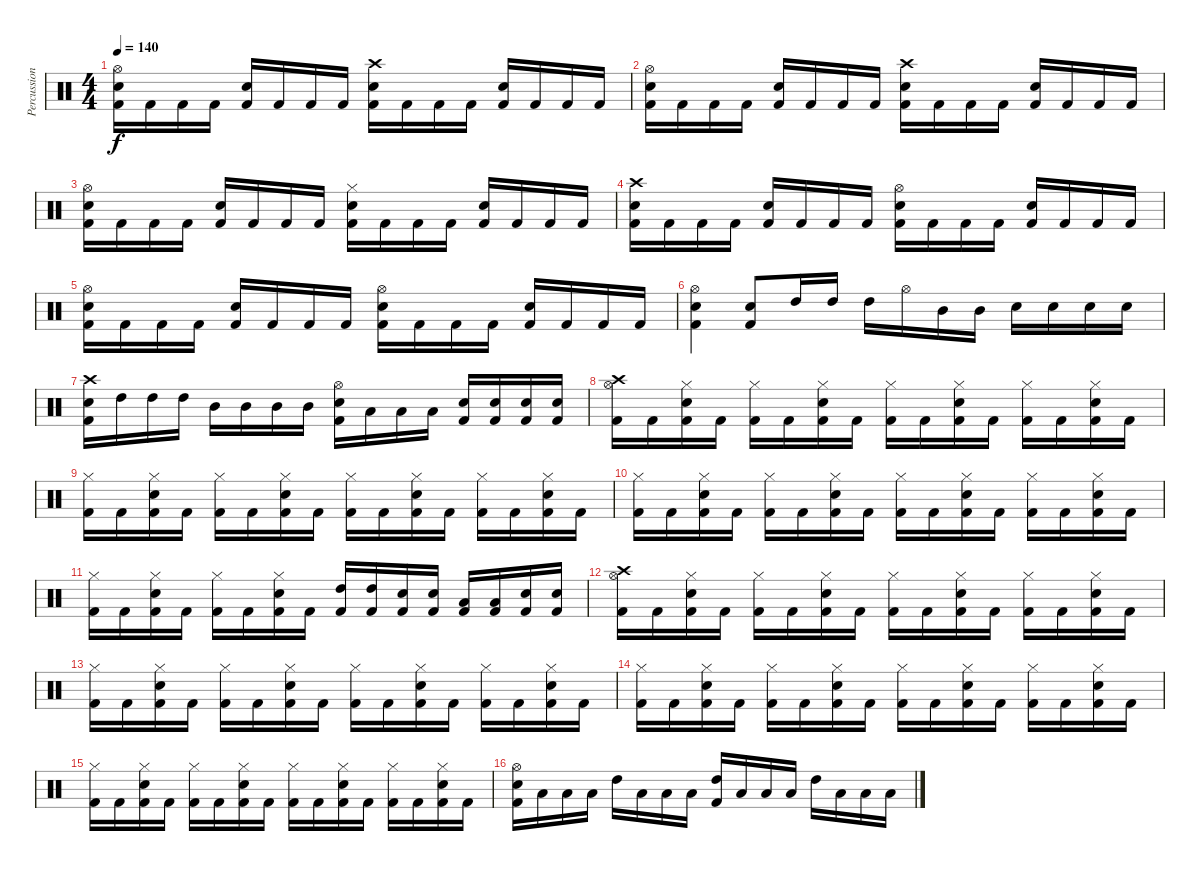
\track ("Percussions" "Percussion") {instrument percussion}
\staff {score}
\articulation defaults
\ts (4 4)
\tempo 140
\clef neutral
\ks c
("Hi-Hat (open)" "Snare (hit) 2" "Kick (hit) 2").16{dy f} "Kick (hit) 2".16 "Kick (hit) 2".16 "Kick (hit) 2".16 ("Snare (hit) 2" "Kick (hit) 2").16 "Kick (hit) 2".16 "Kick (hit) 2".16 "Kick (hit) 2".16 ("Crash high (hit)" "Snare (hit) 2" "Kick (hit) 2").16 "Kick (hit) 2".16 "Kick (hit) 2".16 "Kick (hit) 2".16 ("Snare (hit) 2" "Kick (hit) 2").16 "Kick (hit) 2".16 "Kick (hit) 2".16 "Kick (hit) 2".16 |
("Hi-Hat (open)" "Snare (hit) 2" "Kick (hit) 2").16 "Kick (hit) 2".16 "Kick (hit) 2".16 "Kick (hit) 2".16 ("Snare (hit) 2" "Kick (hit) 2").16 "Kick (hit) 2".16 "Kick (hit) 2".16 "Kick (hit) 2".16 ("Crash high (hit)" "Snare (hit) 2" "Kick (hit) 2").16 "Kick (hit) 2".16 "Kick (hit) 2".16 "Kick (hit) 2".16 ("Snare (hit) 2" "Kick (hit) 2").16 "Kick (hit) 2".16 "Kick (hit) 2".16 "Kick (hit) 2".16 |
("Hi-Hat (open)" "Snare (hit) 2" "Kick (hit) 2").16 "Kick (hit) 2".16 "Kick (hit) 2".16 "Kick (hit) 2".16 ("Snare (hit) 2" "Kick (hit) 2").16 "Kick (hit) 2".16 "Kick (hit) 2".16 "Kick (hit) 2".16 ("Hi-Hat (closed)" "Snare (hit) 2" "Kick (hit) 2").16 "Kick (hit) 2".16 "Kick (hit) 2".16 "Kick (hit) 2".16 ("Snare (hit) 2" "Kick (hit) 2").16 "Kick (hit) 2".16 "Kick (hit) 2".16 "Kick (hit) 2".16 |
("Crash high (hit)" "Snare (hit) 2" "Kick (hit) 2").16 "Kick (hit) 2".16 "Kick (hit) 2".16 "Kick (hit) 2".16 ("Snare (hit) 2" "Kick (hit) 2").16 "Kick (hit) 2".16 "Kick (hit) 2".16 "Kick (hit) 2".16 ("Hi-Hat (open)" "Snare (hit) 2" "Kick (hit) 2").16 "Kick (hit) 2".16 "Kick (hit) 2".16 "Kick (hit) 2".16 ("Snare (hit) 2" "Kick (hit) 2").16 "Kick (hit) 2".16 "Kick (hit) 2".16 "Kick (hit) 2".16 |
("Hi-Hat (open)" "Snare (hit) 2" "Kick (hit) 2").16 "Kick (hit) 2".16 "Kick (hit) 2".16 "Kick (hit) 2".16 ("Snare (hit) 2" "Kick (hit) 2").16 "Kick (hit) 2".16 "Kick (hit) 2".16 "Kick (hit) 2".16 ("Hi-Hat (open)" "Snare (hit) 2" "Kick (hit) 2").16 "Kick (hit) 2".16 "Kick (hit) 2".16 "Kick (hit) 2".16 ("Snare (hit) 2" "Kick (hit) 2").16 "Kick (hit) 2".16 "Kick (hit) 2".16 "Kick (hit) 2".16 |
("Hi-Hat (open)" "Snare (hit) 2" "Kick (hit) 2").4 ("Snare (hit) 2" "Kick (hit) 2").8 "High Tom (hit)".16 "High Tom (hit)".16 "High Tom (hit)".16 "Hi-Hat (open)".16 "Mid Tom (hit)".16 "Mid Tom (hit)".16 "Snare (hit) 2".16 "Snare (hit) 2".16 "Snare (hit) 2".16 "Snare (hit) 2".16 |
("Crash high (hit)" "Snare (hit) 2" "Kick (hit) 2").16 "High Tom (hit)".16 "High Tom (hit)".16 "High Tom (hit)".16 "Mid Tom (hit)".16 "Mid Tom (hit)".16 "Mid Tom (hit)".16 "Mid Tom (hit)".16 ("Hi-Hat (open)" "Snare (hit) 2" "Kick (hit) 2").16 "Low Tom (hit)".16 "Low Tom (hit)".16 "Low Tom (hit)".16 ("Snare (hit) 2" "Kick (hit) 2").16 ("Snare (hit) 2" "Kick (hit) 2").16 ("Snare (hit) 2" "Kick (hit) 2").16 ("Snare (hit) 2" "Kick (hit) 2").16 |
("Hi-Hat (open)" "Crash high (hit)" "Kick (hit) 2").16 "Kick (hit) 2".16 ("Hi-Hat (closed)" "Snare (hit) 2" "Kick (hit) 2").16 "Kick (hit) 2".16 ("Hi-Hat (closed)" "Kick (hit) 2").16 "Kick (hit) 2".16 ("Hi-Hat (closed)" "Snare (hit) 2" "Kick (hit) 2").16 "Kick (hit) 2".16 ("Hi-Hat (closed)" "Kick (hit) 2").16 "Kick (hit) 2".16 ("Hi-Hat (closed)" "Snare (hit) 2" "Kick (hit) 2").16 "Kick (hit) 2".16 ("Hi-Hat (closed)" "Kick (hit) 2").16 "Kick (hit) 2".16 ("Hi-Hat (closed)" "Snare (hit) 2" "Kick (hit) 2").16 "Kick (hit) 2".16 |
("Hi-Hat (closed)" "Kick (hit) 2").16 "Kick (hit) 2".16 ("Hi-Hat (closed)" "Snare (hit) 2" "Kick (hit) 2").16 "Kick (hit) 2".16 ("Hi-Hat (closed)" "Kick (hit) 2").16 "Kick (hit) 2".16 ("Hi-Hat (closed)" "Snare (hit) 2" "Kick (hit) 2").16 "Kick (hit) 2".16 ("Hi-Hat (closed)" "Kick (hit) 2").16 "Kick (hit) 2".16 ("Hi-Hat (closed)" "Snare (hit) 2" "Kick (hit) 2").16 "Kick (hit) 2".16 ("Hi-Hat (closed)" "Kick (hit) 2").16 "Kick (hit) 2".16 ("Hi-Hat (closed)" "Snare (hit) 2" "Kick (hit) 2").16 "Kick (hit) 2".16 |
("Hi-Hat (closed)" "Kick (hit) 2").16 "Kick (hit) 2".16 ("Hi-Hat (closed)" "Snare (hit) 2" "Kick (hit) 2").16 "Kick (hit) 2".16 ("Hi-Hat (closed)" "Kick (hit) 2").16 "Kick (hit) 2".16 ("Hi-Hat (closed)" "Snare (hit) 2" "Kick (hit) 2").16 "Kick (hit) 2".16 ("Hi-Hat (closed)" "Kick (hit) 2").16 "Kick (hit) 2".16 ("Hi-Hat (closed)" "Snare (hit) 2" "Kick (hit) 2").16 "Kick (hit) 2".16 ("Hi-Hat (closed)" "Kick (hit) 2").16 "Kick (hit) 2".16 ("Hi-Hat (closed)" "Snare (hit) 2" "Kick (hit) 2").16 "Kick (hit) 2".16 |
("Hi-Hat (closed)" "Kick (hit) 2").16 "Kick (hit) 2".16 ("Hi-Hat (closed)" "Snare (hit) 2" "Kick (hit) 2").16 "Kick (hit) 2".16 ("Hi-Hat (closed)" "Kick (hit) 2").16 "Kick (hit) 2".16 ("Hi-Hat (closed)" "Snare (hit) 2" "Kick (hit) 2").16 "Kick (hit) 2".16 ("High Tom (hit)" "Kick (hit) 2").16 ("High Tom (hit)" "Kick (hit) 2").16 ("Snare (hit) 2" "Kick (hit) 2").16 ("Snare (hit) 2" "Kick (hit) 2").16 ("Low Tom (hit)" "Kick (hit) 2").16 ("Low Tom (hit)" "Kick (hit) 2").16 ("Snare (hit) 2" "Kick (hit) 2").16 ("Snare (hit) 2" "Kick (hit) 2").16 |
("Hi-Hat (open)" "Crash high (hit)" "Kick (hit) 2").16 "Kick (hit) 2".16 ("Hi-Hat (closed)" "Snare (hit) 2" "Kick (hit) 2").16 "Kick (hit) 2".16 ("Hi-Hat (closed)" "Kick (hit) 2").16 "Kick (hit) 2".16 ("Hi-Hat (closed)" "Snare (hit) 2" "Kick (hit) 2").16 "Kick (hit) 2".16 ("Hi-Hat (closed)" "Kick (hit) 2").16 "Kick (hit) 2".16 ("Hi-Hat (closed)" "Snare (hit) 2" "Kick (hit) 2").16 "Kick (hit) 2".16 ("Hi-Hat (closed)" "Kick (hit) 2").16 "Kick (hit) 2".16 ("Hi-Hat (closed)" "Snare (hit) 2" "Kick (hit) 2").16 "Kick (hit) 2".16 |
("Hi-Hat (closed)" "Kick (hit) 2").16 "Kick (hit) 2".16 ("Hi-Hat (closed)" "Snare (hit) 2" "Kick (hit) 2").16 "Kick (hit) 2".16 ("Hi-Hat (closed)" "Kick (hit) 2").16 "Kick (hit) 2".16 ("Hi-Hat (closed)" "Snare (hit) 2" "Kick (hit) 2").16 "Kick (hit) 2".16 ("Hi-Hat (closed)" "Kick (hit) 2").16 "Kick (hit) 2".16 ("Hi-Hat (closed)" "Snare (hit) 2" "Kick (hit) 2").16 "Kick (hit) 2".16 ("Hi-Hat (closed)" "Kick (hit) 2").16 "Kick (hit) 2".16 ("Hi-Hat (closed)" "Snare (hit) 2" "Kick (hit) 2").16 "Kick (hit) 2".16 |
("Hi-Hat (closed)" "Kick (hit) 2").16 "Kick (hit) 2".16 ("Hi-Hat (closed)" "Snare (hit) 2" "Kick (hit) 2").16 "Kick (hit) 2".16 ("Hi-Hat (closed)" "Kick (hit) 2").16 "Kick (hit) 2".16 ("Hi-Hat (closed)" "Snare (hit) 2" "Kick (hit) 2").16 "Kick (hit) 2".16 ("Hi-Hat (closed)" "Kick (hit) 2").16 "Kick (hit) 2".16 ("Hi-Hat (closed)" "Snare (hit) 2" "Kick (hit) 2").16 "Kick (hit) 2".16 ("Hi-Hat (closed)" "Kick (hit) 2").16 "Kick (hit) 2".16 ("Hi-Hat (closed)" "Snare (hit) 2" "Kick (hit) 2").16 "Kick (hit) 2".16 |
("Hi-Hat (closed)" "Kick (hit) 2").16 "Kick (hit) 2".16 ("Hi-Hat (closed)" "Snare (hit) 2" "Kick (hit) 2").16 "Kick (hit) 2".16 ("Hi-Hat (closed)" "Kick (hit) 2").16 "Kick (hit) 2".16 ("Hi-Hat (closed)" "Snare (hit) 2" "Kick (hit) 2").16 "Kick (hit) 2".16 ("Hi-Hat (closed)" "Kick (hit) 2").16 "Kick (hit) 2".16 ("Hi-Hat (closed)" "Snare (hit) 2" "Kick (hit) 2").16 "Kick (hit) 2".16 ("Hi-Hat (closed)" "Kick (hit) 2").16 "Kick (hit) 2".16 ("Hi-Hat (closed)" "Snare (hit) 2" "Kick (hit) 2").16 "Kick (hit) 2".16 |
("Hi-Hat (open)" "Snare (hit) 2" "Kick (hit) 2").16 "Low Floor Tom (hit)".16 "Low Floor Tom (hit)".16 "Low Floor Tom (hit)".16 "High Tom (hit)".16 "Low Floor Tom (hit)".16 "Low Floor Tom (hit)".16 "Low Floor Tom (hit)".16 ("High Tom (hit)" "Kick (hit) 2").16 "Low Floor Tom (hit)".16 "Low Floor Tom (hit)".16 "Low Floor Tom (hit)".16 "High Tom (hit)".16 "Low Floor Tom (hit)".16 "Low Floor Tom (hit)".16 "Low Floor Tom (hit)".16
